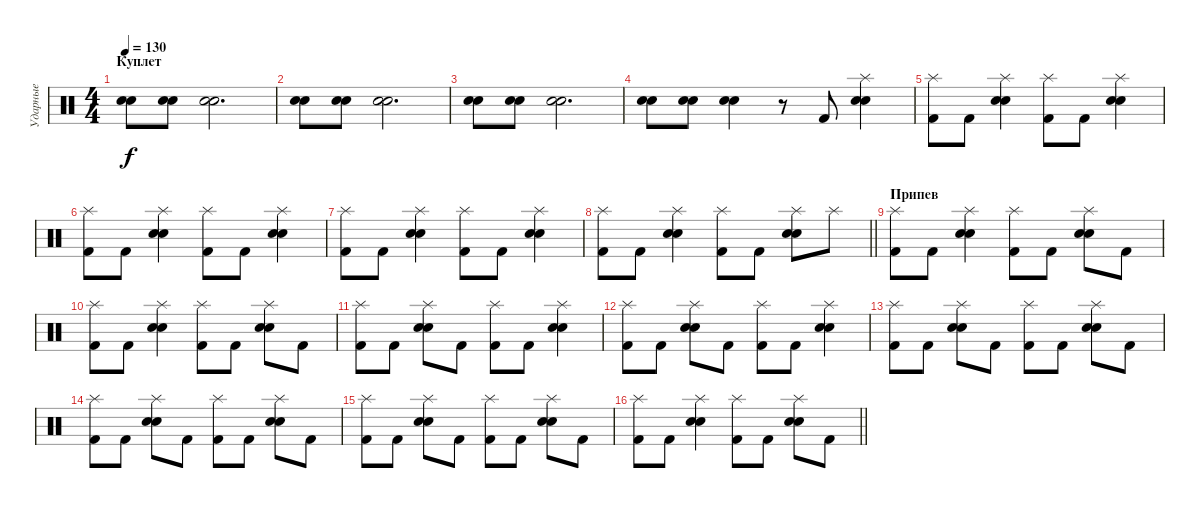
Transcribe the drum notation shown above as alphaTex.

\track ("Ударные" "Ударные") {instrument percussion}
\staff {score}
\articulation defaults
\ts (4 4)
\section ("" "Куплет")
\tempo 130
\clef neutral
\ks c
("Electric Snare (hit)" "Snare (hit) 2").8{dy f} ("Electric Snare (hit)" "Snare (hit) 2").8 ("Electric Snare (hit)" "Snare (hit) 2").2{d} |
("Electric Snare (hit)" "Snare (hit) 2").8 ("Electric Snare (hit)" "Snare (hit) 2").8 ("Electric Snare (hit)" "Snare (hit) 2").2{d} |
("Electric Snare (hit)" "Snare (hit) 2").8 ("Electric Snare (hit)" "Snare (hit) 2").8 ("Electric Snare (hit)" "Snare (hit) 2").2{d} |
("Electric Snare (hit)" "Snare (hit) 2").8 ("Electric Snare (hit)" "Snare (hit) 2").8 ("Electric Snare (hit)" "Snare (hit) 2").4 r.8 "Kick (hit) 2".8 ("Splash (hit)" "Electric Snare (hit)" "Snare (hit) 2").4 |
("Splash (hit)" "Kick (hit) 2").8 "Kick (hit) 2".8 ("Splash (hit)" "Electric Snare (hit)" "Snare (hit) 2").4 ("Splash (hit)" "Kick (hit) 2").8 "Kick (hit) 2".8 ("Splash (hit)" "Electric Snare (hit)" "Snare (hit) 2").4 |
("Splash (hit)" "Kick (hit) 2").8 "Kick (hit) 2".8 ("Splash (hit)" "Electric Snare (hit)" "Snare (hit) 2").4 ("Splash (hit)" "Kick (hit) 2").8 "Kick (hit) 2".8 ("Splash (hit)" "Electric Snare (hit)" "Snare (hit) 2").4 |
("Splash (hit)" "Kick (hit) 2").8 "Kick (hit) 2".8 ("Splash (hit)" "Electric Snare (hit)" "Snare (hit) 2").4 ("Splash (hit)" "Kick (hit) 2").8 "Kick (hit) 2".8 ("Splash (hit)" "Electric Snare (hit)" "Snare (hit) 2").4 |
\barLineRight lightlight
("Splash (hit)" "Kick (hit) 2").8 "Kick (hit) 2".8 ("Splash (hit)" "Electric Snare (hit)" "Snare (hit) 2").4 ("Splash (hit)" "Kick (hit) 2").8 "Kick (hit) 2".8 ("Splash (hit)" "Electric Snare (hit)" "Snare (hit) 2").8 "Splash (hit)".8 |
\section ("" "Припев")
("Splash (hit)" "Kick (hit) 2").8 "Kick (hit) 2".8 ("Splash (hit)" "Electric Snare (hit)" "Snare (hit) 2").4 ("Splash (hit)" "Kick (hit) 2").8 "Kick (hit) 2".8 ("Splash (hit)" "Electric Snare (hit)" "Snare (hit) 2").8 "Kick (hit) 2".8 |
("Splash (hit)" "Kick (hit) 2").8 "Kick (hit) 2".8 ("Splash (hit)" "Electric Snare (hit)" "Snare (hit) 2").4 ("Splash (hit)" "Kick (hit) 2").8 "Kick (hit) 2".8 ("Splash (hit)" "Electric Snare (hit)" "Snare (hit) 2").8 "Kick (hit) 2".8 |
("Splash (hit)" "Kick (hit) 2").8 "Kick (hit) 2".8 ("Splash (hit)" "Electric Snare (hit)" "Snare (hit) 2").8 "Kick (hit) 2".8 ("Splash (hit)" "Kick (hit) 2").8 "Kick (hit) 2".8 ("Splash (hit)" "Electric Snare (hit)" "Snare (hit) 2").4 |
("Splash (hit)" "Kick (hit) 2").8 "Kick (hit) 2".8 ("Splash (hit)" "Electric Snare (hit)" "Snare (hit) 2").8 "Kick (hit) 2".8 ("Splash (hit)" "Kick (hit) 2").8 "Kick (hit) 2".8 ("Splash (hit)" "Electric Snare (hit)" "Snare (hit) 2").4 |
("Splash (hit)" "Kick (hit) 2").8 "Kick (hit) 2".8 ("Splash (hit)" "Electric Snare (hit)" "Snare (hit) 2").8 "Kick (hit) 2".8 ("Splash (hit)" "Kick (hit) 2").8 "Kick (hit) 2".8 ("Splash (hit)" "Electric Snare (hit)" "Snare (hit) 2").8 "Kick (hit) 2".8 |
("Splash (hit)" "Kick (hit) 2").8 "Kick (hit) 2".8 ("Splash (hit)" "Electric Snare (hit)" "Snare (hit) 2").8 "Kick (hit) 2".8 ("Splash (hit)" "Kick (hit) 2").8 "Kick (hit) 2".8 ("Splash (hit)" "Electric Snare (hit)" "Snare (hit) 2").8 "Kick (hit) 2".8 |
("Splash (hit)" "Kick (hit) 2").8 "Kick (hit) 2".8 ("Splash (hit)" "Electric Snare (hit)" "Snare (hit) 2").8 "Kick (hit) 2".8 ("Splash (hit)" "Kick (hit) 2").8 "Kick (hit) 2".8 ("Splash (hit)" "Electric Snare (hit)" "Snare (hit) 2").8 "Kick (hit) 2".8 |
\barLineRight lightlight
("Splash (hit)" "Kick (hit) 2").8 "Kick (hit) 2".8 ("Splash (hit)" "Electric Snare (hit)" "Snare (hit) 2").4 ("Splash (hit)" "Kick (hit) 2").8 "Kick (hit) 2".8 ("Splash (hit)" "Electric Snare (hit)" "Snare (hit) 2").8 "Kick (hit) 2".8
